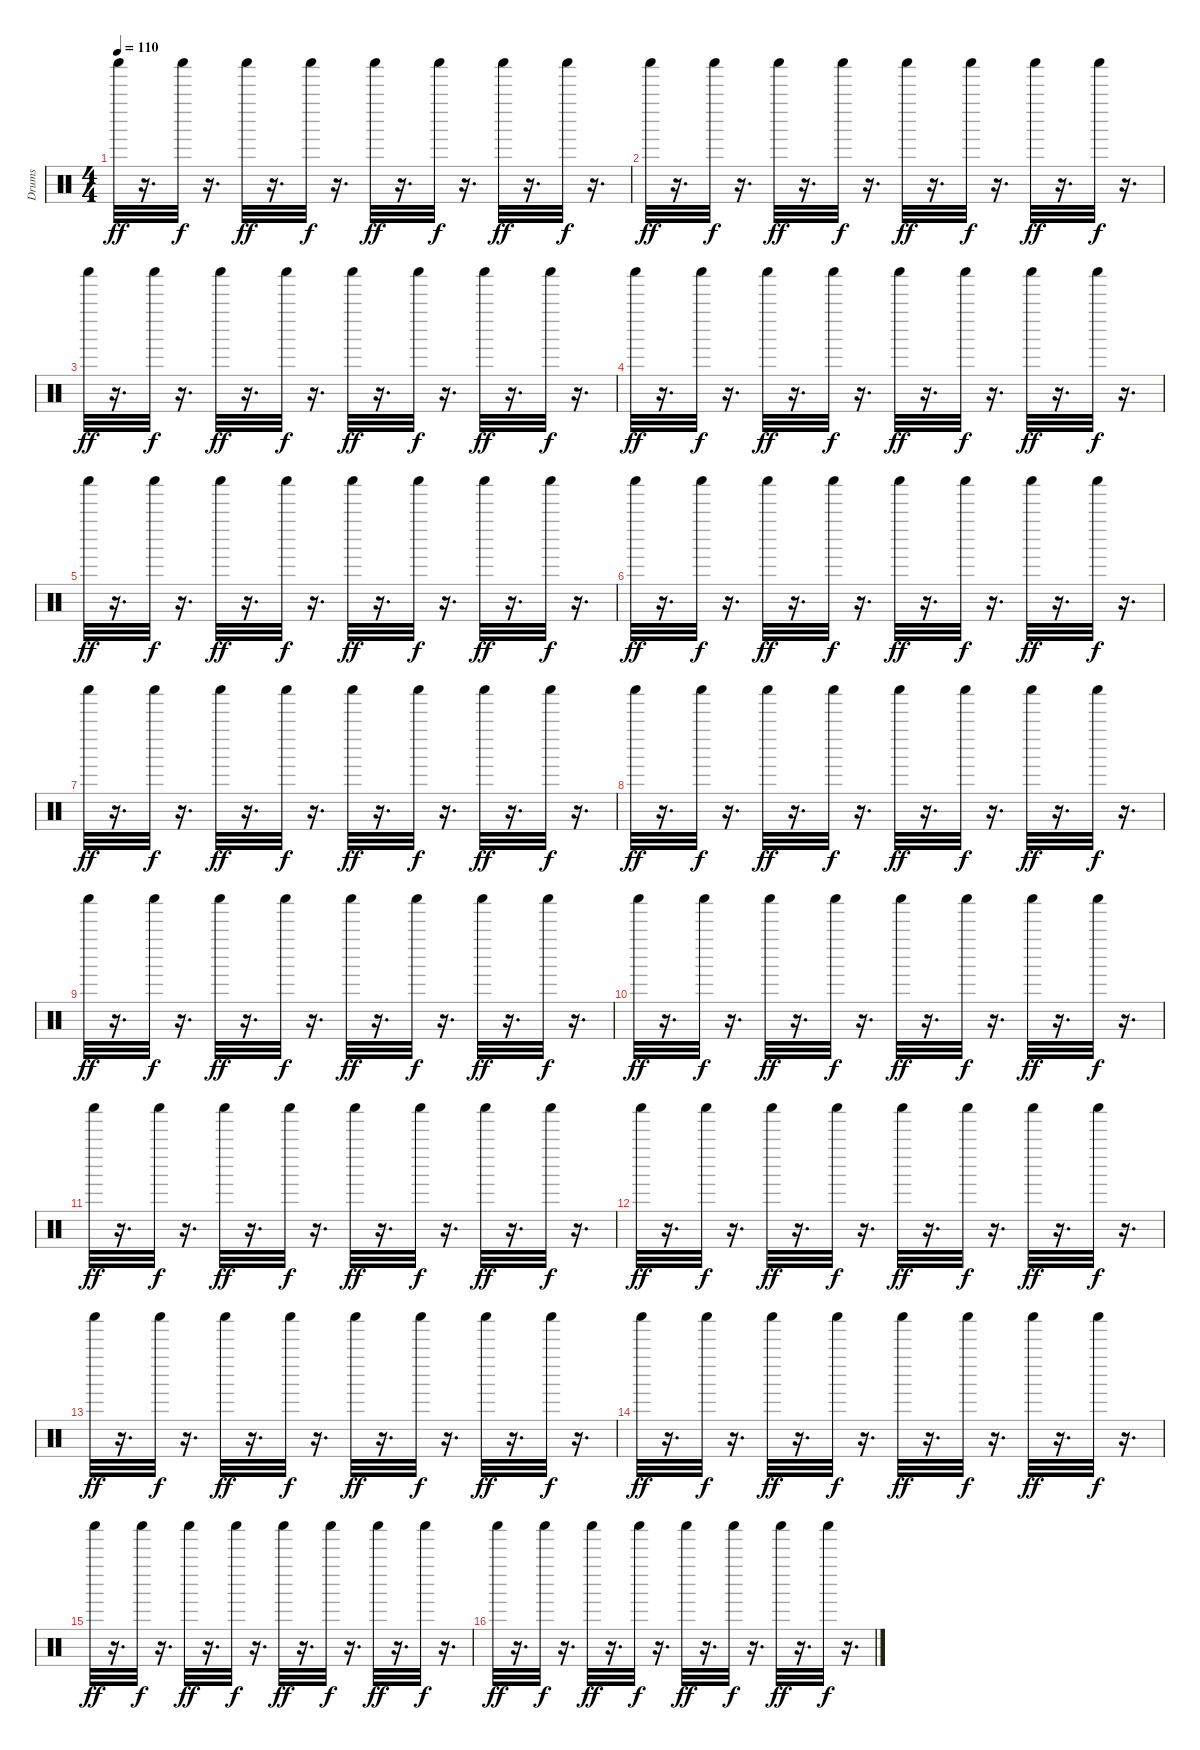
\track ("Drums" "Drums") {instrument percussion}
\staff {score}
\articulation defaults
\ts (4 4)
\tempo 110
\clef neutral
\ks c "Shaker (hit)".32{dy ff}
r.16{d} "Shaker (hit)".32{dy f} r.16{d} "Shaker (hit)".32{dy ff} r.16{d} "Shaker (hit)".32{dy f} r.16{d} "Shaker (hit)".32{dy ff} r.16{d} "Shaker (hit)".32{dy f} r.16{d} "Shaker (hit)".32{dy ff} r.16{d} "Shaker (hit)".32{dy f} r.16{d} |
"Shaker (hit)".32{dy ff} r.16{d} "Shaker (hit)".32{dy f} r.16{d} "Shaker (hit)".32{dy ff} r.16{d} "Shaker (hit)".32{dy f} r.16{d} "Shaker (hit)".32{dy ff} r.16{d} "Shaker (hit)".32{dy f} r.16{d} "Shaker (hit)".32{dy ff} r.16{d} "Shaker (hit)".32{dy f} r.16{d} |
"Shaker (hit)".32{dy ff} r.16{d} "Shaker (hit)".32{dy f} r.16{d} "Shaker (hit)".32{dy ff} r.16{d} "Shaker (hit)".32{dy f} r.16{d} "Shaker (hit)".32{dy ff} r.16{d} "Shaker (hit)".32{dy f} r.16{d} "Shaker (hit)".32{dy ff} r.16{d} "Shaker (hit)".32{dy f} r.16{d} |
"Shaker (hit)".32{dy ff} r.16{d} "Shaker (hit)".32{dy f} r.16{d} "Shaker (hit)".32{dy ff} r.16{d} "Shaker (hit)".32{dy f} r.16{d} "Shaker (hit)".32{dy ff} r.16{d} "Shaker (hit)".32{dy f} r.16{d} "Shaker (hit)".32{dy ff} r.16{d} "Shaker (hit)".32{dy f} r.16{d} |
"Shaker (hit)".32{dy ff} r.16{d} "Shaker (hit)".32{dy f} r.16{d} "Shaker (hit)".32{dy ff} r.16{d} "Shaker (hit)".32{dy f} r.16{d} "Shaker (hit)".32{dy ff} r.16{d} "Shaker (hit)".32{dy f} r.16{d} "Shaker (hit)".32{dy ff} r.16{d} "Shaker (hit)".32{dy f} r.16{d} |
"Shaker (hit)".32{dy ff} r.16{d} "Shaker (hit)".32{dy f} r.16{d} "Shaker (hit)".32{dy ff} r.16{d} "Shaker (hit)".32{dy f} r.16{d} "Shaker (hit)".32{dy ff} r.16{d} "Shaker (hit)".32{dy f} r.16{d} "Shaker (hit)".32{dy ff} r.16{d} "Shaker (hit)".32{dy f} r.16{d} |
"Shaker (hit)".32{dy ff} r.16{d} "Shaker (hit)".32{dy f} r.16{d} "Shaker (hit)".32{dy ff} r.16{d} "Shaker (hit)".32{dy f} r.16{d} "Shaker (hit)".32{dy ff} r.16{d} "Shaker (hit)".32{dy f} r.16{d} "Shaker (hit)".32{dy ff} r.16{d} "Shaker (hit)".32{dy f} r.16{d} |
"Shaker (hit)".32{dy ff} r.16{d} "Shaker (hit)".32{dy f} r.16{d} "Shaker (hit)".32{dy ff} r.16{d} "Shaker (hit)".32{dy f} r.16{d} "Shaker (hit)".32{dy ff} r.16{d} "Shaker (hit)".32{dy f} r.16{d} "Shaker (hit)".32{dy ff} r.16{d} "Shaker (hit)".32{dy f} r.16{d} |
"Shaker (hit)".32{dy ff} r.16{d} "Shaker (hit)".32{dy f} r.16{d} "Shaker (hit)".32{dy ff} r.16{d} "Shaker (hit)".32{dy f} r.16{d} "Shaker (hit)".32{dy ff} r.16{d} "Shaker (hit)".32{dy f} r.16{d} "Shaker (hit)".32{dy ff} r.16{d} "Shaker (hit)".32{dy f} r.16{d} |
"Shaker (hit)".32{dy ff} r.16{d} "Shaker (hit)".32{dy f} r.16{d} "Shaker (hit)".32{dy ff} r.16{d} "Shaker (hit)".32{dy f} r.16{d} "Shaker (hit)".32{dy ff} r.16{d} "Shaker (hit)".32{dy f} r.16{d} "Shaker (hit)".32{dy ff} r.16{d} "Shaker (hit)".32{dy f} r.16{d} |
"Shaker (hit)".32{dy ff} r.16{d} "Shaker (hit)".32{dy f} r.16{d} "Shaker (hit)".32{dy ff} r.16{d} "Shaker (hit)".32{dy f} r.16{d} "Shaker (hit)".32{dy ff} r.16{d} "Shaker (hit)".32{dy f} r.16{d} "Shaker (hit)".32{dy ff} r.16{d} "Shaker (hit)".32{dy f} r.16{d} |
"Shaker (hit)".32{dy ff} r.16{d} "Shaker (hit)".32{dy f} r.16{d} "Shaker (hit)".32{dy ff} r.16{d} "Shaker (hit)".32{dy f} r.16{d} "Shaker (hit)".32{dy ff} r.16{d} "Shaker (hit)".32{dy f} r.16{d} "Shaker (hit)".32{dy ff} r.16{d} "Shaker (hit)".32{dy f} r.16{d} |
"Shaker (hit)".32{dy ff} r.16{d} "Shaker (hit)".32{dy f} r.16{d} "Shaker (hit)".32{dy ff} r.16{d} "Shaker (hit)".32{dy f} r.16{d} "Shaker (hit)".32{dy ff} r.16{d} "Shaker (hit)".32{dy f} r.16{d} "Shaker (hit)".32{dy ff} r.16{d} "Shaker (hit)".32{dy f} r.16{d} |
"Shaker (hit)".32{dy ff} r.16{d} "Shaker (hit)".32{dy f} r.16{d} "Shaker (hit)".32{dy ff} r.16{d} "Shaker (hit)".32{dy f} r.16{d} "Shaker (hit)".32{dy ff} r.16{d} "Shaker (hit)".32{dy f} r.16{d} "Shaker (hit)".32{dy ff} r.16{d} "Shaker (hit)".32{dy f} r.16{d} |
"Shaker (hit)".32{dy ff} r.16{d} "Shaker (hit)".32{dy f} r.16{d} "Shaker (hit)".32{dy ff} r.16{d} "Shaker (hit)".32{dy f} r.16{d} "Shaker (hit)".32{dy ff} r.16{d} "Shaker (hit)".32{dy f} r.16{d} "Shaker (hit)".32{dy ff} r.16{d} "Shaker (hit)".32{dy f} r.16{d} |
"Shaker (hit)".32{dy ff} r.16{d} "Shaker (hit)".32{dy f} r.16{d} "Shaker (hit)".32{dy ff} r.16{d} "Shaker (hit)".32{dy f} r.16{d} "Shaker (hit)".32{dy ff} r.16{d} "Shaker (hit)".32{dy f} r.16{d} "Shaker (hit)".32{dy ff} r.16{d} "Shaker (hit)".32{dy f} r.16{d}
